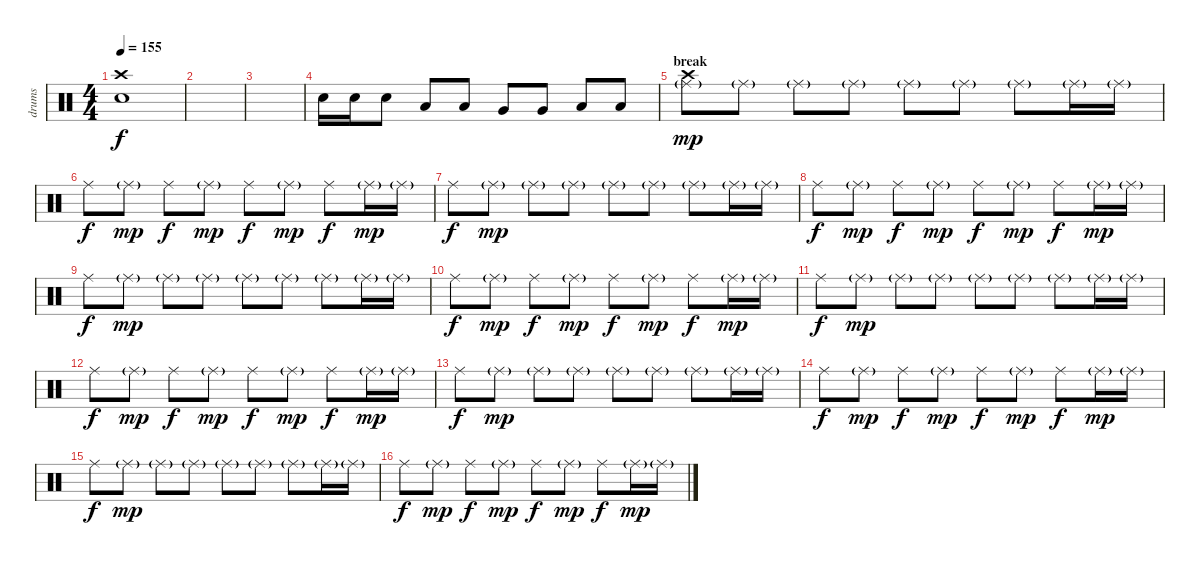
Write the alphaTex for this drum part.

\track ("drums" "drums") {instrument percussion}
\staff {score}
\articulation defaults
\ts (4 4)
\tempo 155
\clef neutral
\ks c
("Electric Snare (hit)" "Crash high (hit)").1{dy f} |
|
|
"Electric Snare (hit)".16 "Electric Snare (hit)".16 "Electric Snare (hit)".8 "Low Tom (hit)".8 "Low Tom (hit)".8 "Very Low Tom (hit)".8 "Very Low Tom (hit)".8 "Low Floor Tom (hit)".8 "Low Floor Tom (hit)".8 |
\section ("" "break")
("Ride (middle)"{g} "Crash high (hit)").8{dy mp} "Ride (middle)"{g}.8 "Ride (middle)"{g}.8 "Ride (middle)"{g}.8 "Ride (middle)"{g}.8 "Ride (middle)"{g}.8 "Ride (middle)"{g}.8 "Ride (middle)"{g}.16 "Ride (middle)"{g}.16 |
"Ride (middle)".8{dy f} "Ride (middle)"{g}.8{dy mp} "Ride (middle)".8{dy f} "Ride (middle)"{g}.8{dy mp} "Ride (middle)".8{dy f} "Ride (middle)"{g}.8{dy mp} "Ride (middle)".8{dy f} "Ride (middle)"{g}.16{dy mp} "Ride (middle)"{g}.16 |
"Ride (middle)".8{dy f} "Ride (middle)"{g}.8{dy mp} "Ride (middle)"{g}.8 "Ride (middle)"{g}.8 "Ride (middle)"{g}.8 "Ride (middle)"{g}.8 "Ride (middle)"{g}.8 "Ride (middle)"{g}.16 "Ride (middle)"{g}.16 |
"Ride (middle)".8{dy f} "Ride (middle)"{g}.8{dy mp} "Ride (middle)".8{dy f} "Ride (middle)"{g}.8{dy mp} "Ride (middle)".8{dy f} "Ride (middle)"{g}.8{dy mp} "Ride (middle)".8{dy f} "Ride (middle)"{g}.16{dy mp} "Ride (middle)"{g}.16 |
"Ride (middle)".8{dy f} "Ride (middle)"{g}.8{dy mp} "Ride (middle)"{g}.8 "Ride (middle)"{g}.8 "Ride (middle)"{g}.8 "Ride (middle)"{g}.8 "Ride (middle)"{g}.8 "Ride (middle)"{g}.16 "Ride (middle)"{g}.16 |
"Ride (middle)".8{dy f} "Ride (middle)"{g}.8{dy mp} "Ride (middle)".8{dy f} "Ride (middle)"{g}.8{dy mp} "Ride (middle)".8{dy f} "Ride (middle)"{g}.8{dy mp} "Ride (middle)".8{dy f} "Ride (middle)"{g}.16{dy mp} "Ride (middle)"{g}.16 |
"Ride (middle)".8{dy f} "Ride (middle)"{g}.8{dy mp} "Ride (middle)"{g}.8 "Ride (middle)"{g}.8 "Ride (middle)"{g}.8 "Ride (middle)"{g}.8 "Ride (middle)"{g}.8 "Ride (middle)"{g}.16 "Ride (middle)"{g}.16 |
"Ride (middle)".8{dy f} "Ride (middle)"{g}.8{dy mp} "Ride (middle)".8{dy f} "Ride (middle)"{g}.8{dy mp} "Ride (middle)".8{dy f} "Ride (middle)"{g}.8{dy mp} "Ride (middle)".8{dy f} "Ride (middle)"{g}.16{dy mp} "Ride (middle)"{g}.16 |
"Ride (middle)".8{dy f} "Ride (middle)"{g}.8{dy mp} "Ride (middle)"{g}.8 "Ride (middle)"{g}.8 "Ride (middle)"{g}.8 "Ride (middle)"{g}.8 "Ride (middle)"{g}.8 "Ride (middle)"{g}.16 "Ride (middle)"{g}.16 |
"Ride (middle)".8{dy f} "Ride (middle)"{g}.8{dy mp} "Ride (middle)".8{dy f} "Ride (middle)"{g}.8{dy mp} "Ride (middle)".8{dy f} "Ride (middle)"{g}.8{dy mp} "Ride (middle)".8{dy f} "Ride (middle)"{g}.16{dy mp} "Ride (middle)"{g}.16 |
"Ride (middle)".8{dy f} "Ride (middle)"{g}.8{dy mp} "Ride (middle)"{g}.8 "Ride (middle)"{g}.8 "Ride (middle)"{g}.8 "Ride (middle)"{g}.8 "Ride (middle)"{g}.8 "Ride (middle)"{g}.16 "Ride (middle)"{g}.16 |
"Ride (middle)".8{dy f} "Ride (middle)"{g}.8{dy mp} "Ride (middle)".8{dy f} "Ride (middle)"{g}.8{dy mp} "Ride (middle)".8{dy f} "Ride (middle)"{g}.8{dy mp} "Ride (middle)".8{dy f} "Ride (middle)"{g}.16{dy mp} "Ride (middle)"{g}.16
